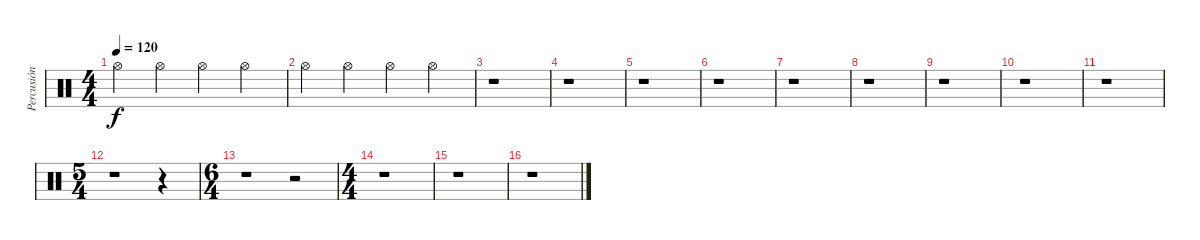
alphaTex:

\track ("Percusión" "Percusión") {instrument percussion}
\staff {score}
\articulation defaults
\ts (4 4)
\tempo 120
\clef neutral
\ks c "Hi-Hat (open)".4{dy f} "Hi-Hat (open)".4 "Hi-Hat (open)".4 "Hi-Hat (open)".4
|
"Hi-Hat (open)".4 "Hi-Hat (open)".4 "Hi-Hat (open)".4 "Hi-Hat (open)".4 |
r.1 |
r.1 |
r.1 |
r.1 |
r.1 |
r.1 |
r.1 |
r.1 |
r.1 |
\ts (5 4)
r.1 r.4 |
\ts (6 4)
r.1 r.2 |
\ts (4 4)
r.1 |
r.1 |
r.1
